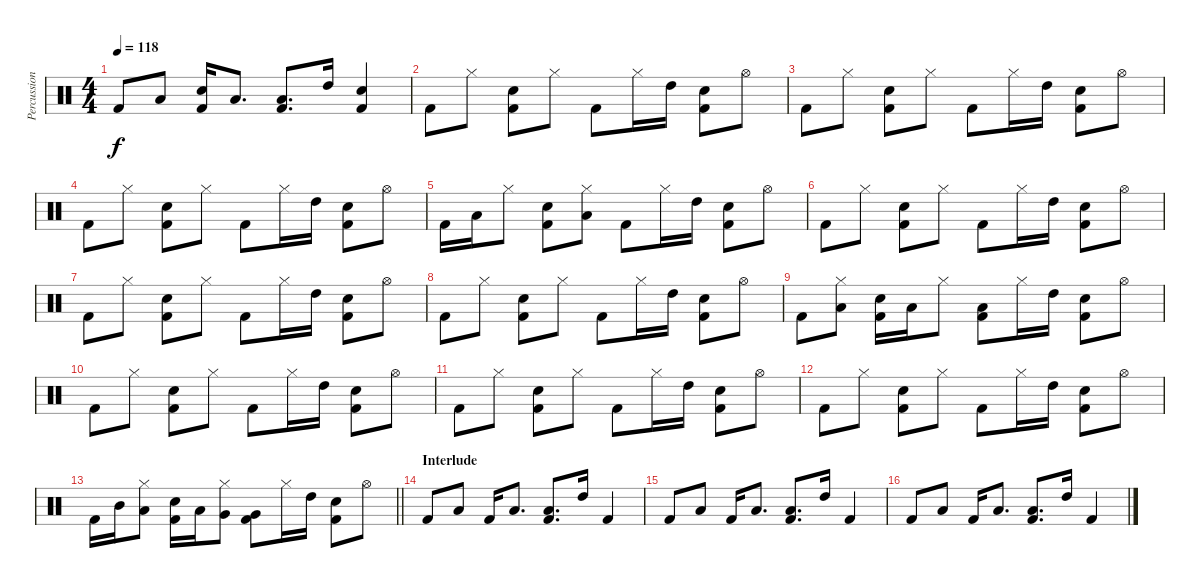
\track ("Percussion" "Percussion") {instrument percussion}
\staff {score}
\articulation defaults
\ts (4 4)
\tempo 118
\clef neutral
\ks c "Kick (hit) 2".8{dy f} "Low Tom (hit)".8
("Hand Clap (hit)" "Kick (hit) 2").16 "Low Tom (hit)".8{d} ("Low Tom (hit)" "Kick (hit) 2").8{d} "High Tom (hit)".16 ("Hand Clap (hit)" "Kick (hit) 2").4 |
"Kick (hit) 2".8 "Hi-Hat (closed)".8 ("Hand Clap (hit)" "Kick (hit) 2").8 "Hi-Hat (closed)".8 "Kick (hit) 2".8 "Hi-Hat (closed)".16 "High Tom (hit)".16 ("Hand Clap (hit)" "Kick (hit) 2").8 "Hi-Hat (open)".8 |
"Kick (hit) 2".8 "Hi-Hat (closed)".8 ("Hand Clap (hit)" "Kick (hit) 2").8 "Hi-Hat (closed)".8 "Kick (hit) 2".8 "Hi-Hat (closed)".16 "High Tom (hit)".16 ("Hand Clap (hit)" "Kick (hit) 2").8 "Hi-Hat (open)".8 |
"Kick (hit) 2".8 "Hi-Hat (closed)".8 ("Hand Clap (hit)" "Kick (hit) 2").8 "Hi-Hat (closed)".8 "Kick (hit) 2".8 "Hi-Hat (closed)".16 "High Tom (hit)".16 ("Hand Clap (hit)" "Kick (hit) 2").8 "Hi-Hat (open)".8 |
"Kick (hit) 2".16 "Low Tom (hit)".16 "Hi-Hat (closed)".8 ("Hand Clap (hit)" "Kick (hit) 2").8 ("Hi-Hat (closed)" "Low Tom (hit)").8 "Kick (hit) 2".8 "Hi-Hat (closed)".16 "High Tom (hit)".16 ("Hand Clap (hit)" "Kick (hit) 2").8 "Hi-Hat (open)".8 |
"Kick (hit) 2".8 "Hi-Hat (closed)".8 ("Hand Clap (hit)" "Kick (hit) 2").8 "Hi-Hat (closed)".8 "Kick (hit) 2".8 "Hi-Hat (closed)".16 "High Tom (hit)".16 ("Hand Clap (hit)" "Kick (hit) 2").8 "Hi-Hat (open)".8 |
"Kick (hit) 2".8 "Hi-Hat (closed)".8 ("Hand Clap (hit)" "Kick (hit) 2").8 "Hi-Hat (closed)".8 "Kick (hit) 2".8 "Hi-Hat (closed)".16 "High Tom (hit)".16 ("Hand Clap (hit)" "Kick (hit) 2").8 "Hi-Hat (open)".8 |
"Kick (hit) 2".8 "Hi-Hat (closed)".8 ("Hand Clap (hit)" "Kick (hit) 2").8 "Hi-Hat (closed)".8 "Kick (hit) 2".8 "Hi-Hat (closed)".16 "High Tom (hit)".16 ("Hand Clap (hit)" "Kick (hit) 2").8 "Hi-Hat (open)".8 |
"Kick (hit) 2".8 ("Hi-Hat (closed)" "Low Tom (hit)").8 ("Hand Clap (hit)" "Kick (hit) 2").16 "Low Tom (hit)".16 "Hi-Hat (closed)".8 ("Low Tom (hit)" "Kick (hit) 2").8 "Hi-Hat (closed)".16 "High Tom (hit)".16 ("Hand Clap (hit)" "Kick (hit) 2").8 "Hi-Hat (open)".8 |
"Kick (hit) 2".8 "Hi-Hat (closed)".8 ("Hand Clap (hit)" "Kick (hit) 2").8 "Hi-Hat (closed)".8 "Kick (hit) 2".8 "Hi-Hat (closed)".16 "High Tom (hit)".16 ("Hand Clap (hit)" "Kick (hit) 2").8 "Hi-Hat (open)".8 |
"Kick (hit) 2".8 "Hi-Hat (closed)".8 ("Hand Clap (hit)" "Kick (hit) 2").8 "Hi-Hat (closed)".8 "Kick (hit) 2".8 "Hi-Hat (closed)".16 "High Tom (hit)".16 ("Hand Clap (hit)" "Kick (hit) 2").8 "Hi-Hat (open)".8 |
"Kick (hit) 2".8 "Hi-Hat (closed)".8 ("Hand Clap (hit)" "Kick (hit) 2").8 "Hi-Hat (closed)".8 "Kick (hit) 2".8 "Hi-Hat (closed)".16 "High Tom (hit)".16 ("Hand Clap (hit)" "Kick (hit) 2").8 "Hi-Hat (open)".8 |
\barLineRight lightlight "Kick (hit) 2".16 "Mid Tom (hit)".16
("Hi-Hat (closed)" "Low Tom (hit)").8 ("Hand Clap (hit)" "Kick (hit) 2").16 "Low Tom (hit)".16 ("Hi-Hat (closed)" "Very Low Tom (hit)").8 ("Very Low Tom (hit)" "Kick (hit) 2").8 "Hi-Hat (closed)".16 "High Tom (hit)".16 ("Hand Clap (hit)" "Kick (hit) 2").8 "Hi-Hat (open)".8 |
\section ("" "Interlude")
"Kick (hit) 2".8 "Low Tom (hit)".8 "Kick (hit) 2".16 "Low Tom (hit)".8{d} ("Low Tom (hit)" "Kick (hit) 2").8{d} "High Tom (hit)".16 "Kick (hit) 2".4 |
"Kick (hit) 2".8 "Low Tom (hit)".8 "Kick (hit) 2".16 "Low Tom (hit)".8{d} ("Low Tom (hit)" "Kick (hit) 2").8{d} "High Tom (hit)".16 "Kick (hit) 2".4 |
"Kick (hit) 2".8 "Low Tom (hit)".8 "Kick (hit) 2".16 "Low Tom (hit)".8{d} ("Low Tom (hit)" "Kick (hit) 2").8{d} "High Tom (hit)".16 "Kick (hit) 2".4
